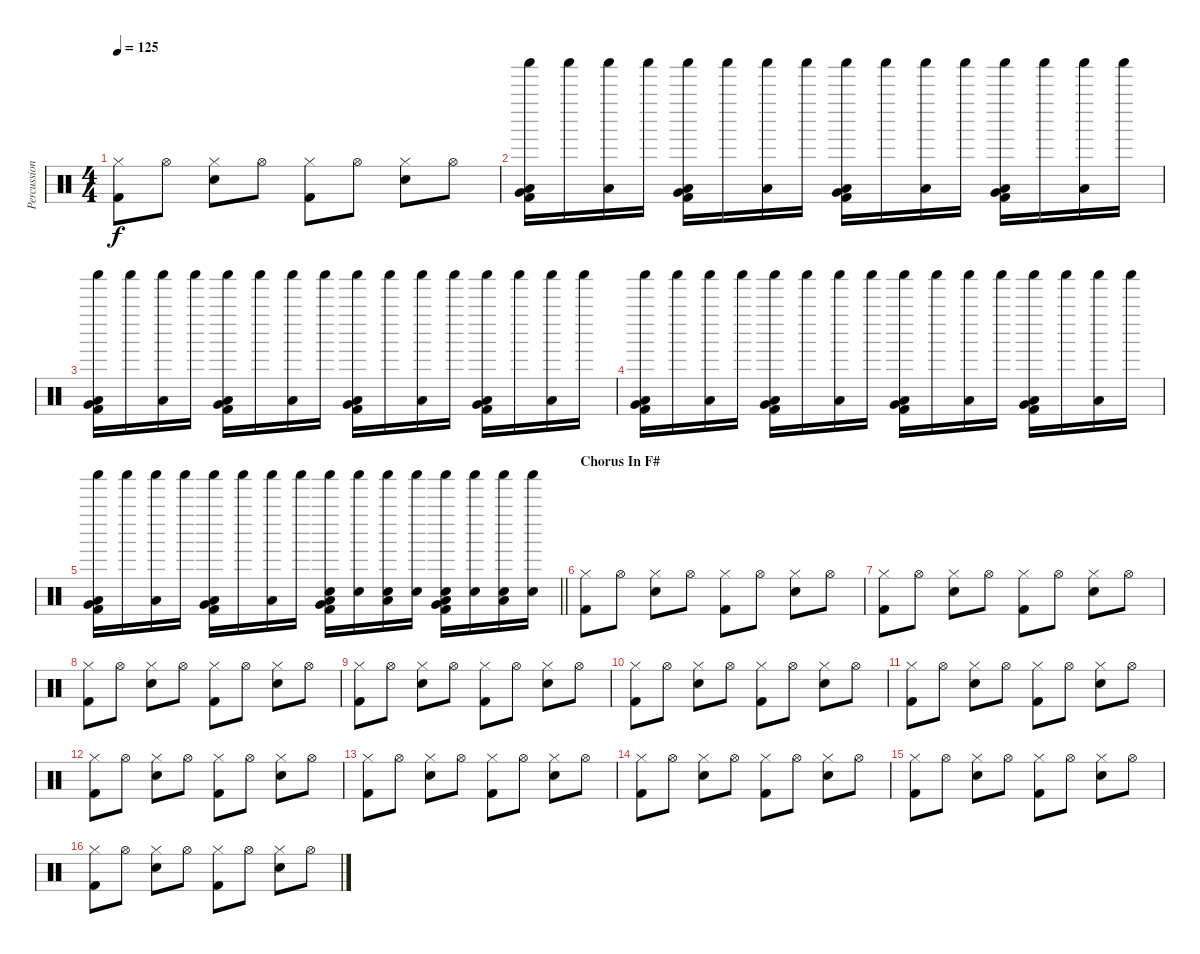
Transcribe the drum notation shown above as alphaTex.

\track ("Percussion" "Percussion") {instrument percussion}
\staff {score}
\articulation defaults
\ts (4 4)
\tempo 125
\clef neutral
\ks c
("Hi-Hat (closed)" "Kick (hit) 2").8{dy f} "Hi-Hat (open)".8 ("Hi-Hat (closed)" "Snare (hit) 2").8 "Hi-Hat (open)".8 ("Hi-Hat (closed)" "Kick (hit) 2").8 "Hi-Hat (open)".8 ("Hi-Hat (closed)" "Snare (hit) 2").8 "Hi-Hat (open)".8 |
("Shaker (hit)" "Very Low Tom (hit)" "Low Floor Tom (hit)" "Kick (hit) 2").16 "Shaker (hit)".16 ("Shaker (hit)" "Low Floor Tom (hit)").16 "Shaker (hit)".16 ("Shaker (hit)" "Very Low Tom (hit)" "Low Floor Tom (hit)" "Kick (hit) 2").16 "Shaker (hit)".16 ("Shaker (hit)" "Low Floor Tom (hit)").16 "Shaker (hit)".16 ("Shaker (hit)" "Very Low Tom (hit)" "Low Floor Tom (hit)" "Kick (hit) 2").16 "Shaker (hit)".16 ("Shaker (hit)" "Low Floor Tom (hit)").16 "Shaker (hit)".16 ("Shaker (hit)" "Very Low Tom (hit)" "Low Floor Tom (hit)" "Kick (hit) 2").16 "Shaker (hit)".16 ("Shaker (hit)" "Low Floor Tom (hit)").16 "Shaker (hit)".16 |
("Shaker (hit)" "Very Low Tom (hit)" "Low Floor Tom (hit)" "Kick (hit) 2").16 "Shaker (hit)".16 ("Shaker (hit)" "Low Floor Tom (hit)").16 "Shaker (hit)".16 ("Shaker (hit)" "Very Low Tom (hit)" "Low Floor Tom (hit)" "Kick (hit) 2").16 "Shaker (hit)".16 ("Shaker (hit)" "Low Floor Tom (hit)").16 "Shaker (hit)".16 ("Shaker (hit)" "Very Low Tom (hit)" "Low Floor Tom (hit)" "Kick (hit) 2").16 "Shaker (hit)".16 ("Shaker (hit)" "Low Floor Tom (hit)").16 "Shaker (hit)".16 ("Shaker (hit)" "Very Low Tom (hit)" "Low Floor Tom (hit)" "Kick (hit) 2").16 "Shaker (hit)".16 ("Shaker (hit)" "Low Floor Tom (hit)").16 "Shaker (hit)".16 |
("Shaker (hit)" "Very Low Tom (hit)" "Low Floor Tom (hit)" "Kick (hit) 2").16 "Shaker (hit)".16 ("Shaker (hit)" "Low Floor Tom (hit)").16 "Shaker (hit)".16 ("Shaker (hit)" "Very Low Tom (hit)" "Low Floor Tom (hit)" "Kick (hit) 2").16 "Shaker (hit)".16 ("Shaker (hit)" "Low Floor Tom (hit)").16 "Shaker (hit)".16 ("Shaker (hit)" "Very Low Tom (hit)" "Low Floor Tom (hit)" "Kick (hit) 2").16 "Shaker (hit)".16 ("Shaker (hit)" "Low Floor Tom (hit)").16 "Shaker (hit)".16 ("Shaker (hit)" "Very Low Tom (hit)" "Low Floor Tom (hit)" "Kick (hit) 2").16 "Shaker (hit)".16 ("Shaker (hit)" "Low Floor Tom (hit)").16 "Shaker (hit)".16 |
\barLineRight lightlight
("Shaker (hit)" "Very Low Tom (hit)" "Low Floor Tom (hit)" "Kick (hit) 2").16 "Shaker (hit)".16 ("Shaker (hit)" "Low Floor Tom (hit)").16 "Shaker (hit)".16 ("Shaker (hit)" "Very Low Tom (hit)" "Low Floor Tom (hit)" "Kick (hit) 2").16 "Shaker (hit)".16 ("Shaker (hit)" "Low Floor Tom (hit)").16 "Shaker (hit)".16 ("Shaker (hit)" "Snare (hit) 2" "Very Low Tom (hit)" "Low Floor Tom (hit)" "Kick (hit) 2").16 ("Shaker (hit)" "Snare (hit) 2").16 ("Shaker (hit)" "Snare (hit) 2" "Low Floor Tom (hit)").16 ("Shaker (hit)" "Snare (hit) 2").16 ("Shaker (hit)" "Snare (hit) 2" "Very Low Tom (hit)" "Low Floor Tom (hit)" "Kick (hit) 2").16 ("Shaker (hit)" "Snare (hit) 2").16 ("Shaker (hit)" "Snare (hit) 2" "Low Floor Tom (hit)").16 ("Shaker (hit)" "Snare (hit) 2").16 |
\section ("" "Chorus In F#")
("Hi-Hat (closed)" "Kick (hit) 2").8{volume 15} "Hi-Hat (open)".8 ("Hi-Hat (closed)" "Snare (hit) 2").8 "Hi-Hat (open)".8 ("Hi-Hat (closed)" "Kick (hit) 2").8 "Hi-Hat (open)".8 ("Hi-Hat (closed)" "Snare (hit) 2").8 "Hi-Hat (open)".8 |
("Hi-Hat (closed)" "Kick (hit) 2").8 "Hi-Hat (open)".8 ("Hi-Hat (closed)" "Snare (hit) 2").8 "Hi-Hat (open)".8 ("Hi-Hat (closed)" "Kick (hit) 2").8 "Hi-Hat (open)".8 ("Hi-Hat (closed)" "Snare (hit) 2").8 "Hi-Hat (open)".8 |
("Hi-Hat (closed)" "Kick (hit) 2").8 "Hi-Hat (open)".8 ("Hi-Hat (closed)" "Snare (hit) 2").8 "Hi-Hat (open)".8 ("Hi-Hat (closed)" "Kick (hit) 2").8 "Hi-Hat (open)".8 ("Hi-Hat (closed)" "Snare (hit) 2").8 "Hi-Hat (open)".8 |
("Hi-Hat (closed)" "Kick (hit) 2").8 "Hi-Hat (open)".8 ("Hi-Hat (closed)" "Snare (hit) 2").8 "Hi-Hat (open)".8 ("Hi-Hat (closed)" "Kick (hit) 2").8 "Hi-Hat (open)".8 ("Hi-Hat (closed)" "Snare (hit) 2").8 "Hi-Hat (open)".8 |
("Hi-Hat (closed)" "Kick (hit) 2").8 "Hi-Hat (open)".8 ("Hi-Hat (closed)" "Snare (hit) 2").8 "Hi-Hat (open)".8 ("Hi-Hat (closed)" "Kick (hit) 2").8 "Hi-Hat (open)".8 ("Hi-Hat (closed)" "Snare (hit) 2").8 "Hi-Hat (open)".8 |
("Hi-Hat (closed)" "Kick (hit) 2").8 "Hi-Hat (open)".8 ("Hi-Hat (closed)" "Snare (hit) 2").8 "Hi-Hat (open)".8 ("Hi-Hat (closed)" "Kick (hit) 2").8 "Hi-Hat (open)".8 ("Hi-Hat (closed)" "Snare (hit) 2").8 "Hi-Hat (open)".8 |
("Hi-Hat (closed)" "Kick (hit) 2").8 "Hi-Hat (open)".8 ("Hi-Hat (closed)" "Snare (hit) 2").8 "Hi-Hat (open)".8 ("Hi-Hat (closed)" "Kick (hit) 2").8 "Hi-Hat (open)".8 ("Hi-Hat (closed)" "Snare (hit) 2").8 "Hi-Hat (open)".8 |
("Hi-Hat (closed)" "Kick (hit) 2").8 "Hi-Hat (open)".8 ("Hi-Hat (closed)" "Snare (hit) 2").8 "Hi-Hat (open)".8 ("Hi-Hat (closed)" "Kick (hit) 2").8 "Hi-Hat (open)".8 ("Hi-Hat (closed)" "Snare (hit) 2").8 "Hi-Hat (open)".8 |
("Hi-Hat (closed)" "Kick (hit) 2").8 "Hi-Hat (open)".8 ("Hi-Hat (closed)" "Snare (hit) 2").8 "Hi-Hat (open)".8 ("Hi-Hat (closed)" "Kick (hit) 2").8 "Hi-Hat (open)".8 ("Hi-Hat (closed)" "Snare (hit) 2").8 "Hi-Hat (open)".8 |
("Hi-Hat (closed)" "Kick (hit) 2").8 "Hi-Hat (open)".8 ("Hi-Hat (closed)" "Snare (hit) 2").8 "Hi-Hat (open)".8 ("Hi-Hat (closed)" "Kick (hit) 2").8 "Hi-Hat (open)".8 ("Hi-Hat (closed)" "Snare (hit) 2").8 "Hi-Hat (open)".8 |
("Hi-Hat (closed)" "Kick (hit) 2").8 "Hi-Hat (open)".8 ("Hi-Hat (closed)" "Snare (hit) 2").8 "Hi-Hat (open)".8 ("Hi-Hat (closed)" "Kick (hit) 2").8 "Hi-Hat (open)".8 ("Hi-Hat (closed)" "Snare (hit) 2").8 "Hi-Hat (open)".8
